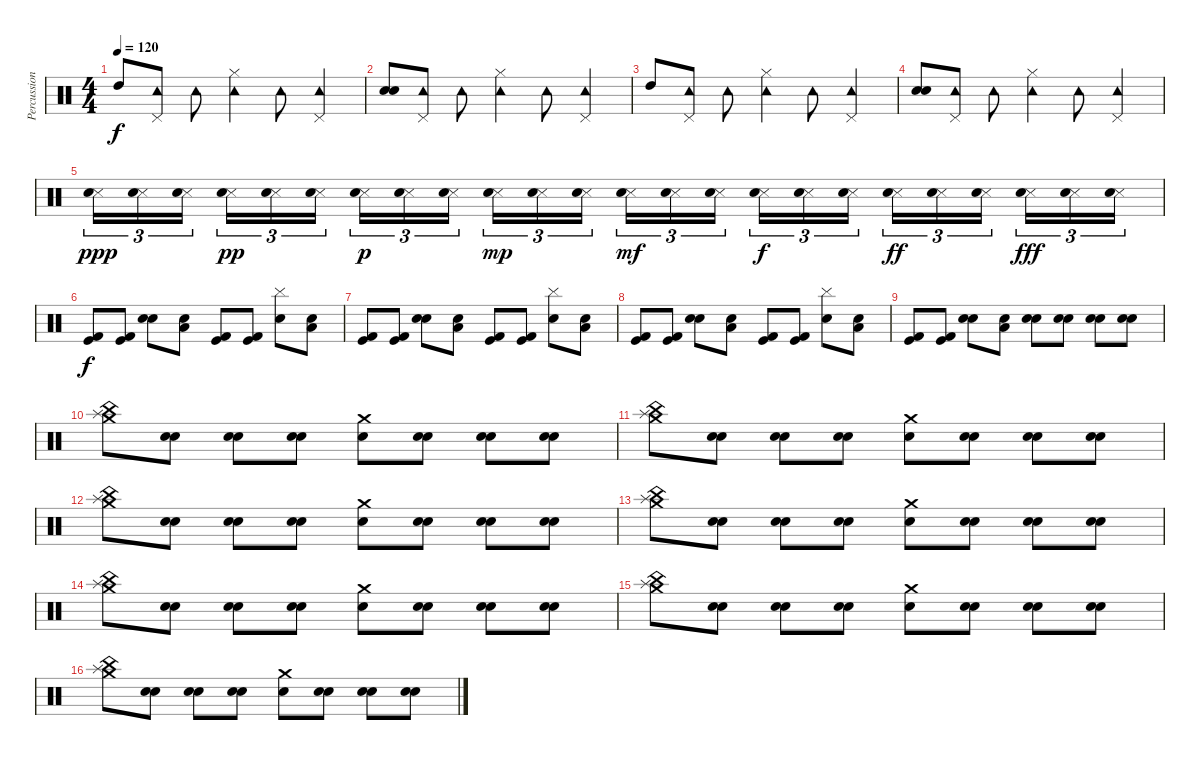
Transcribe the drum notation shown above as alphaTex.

\track ("Percussioni" "Percussion") {instrument percussion}
\staff {score}
\articulation defaults
\ts (4 4)
\tempo 120
\clef neutral
\ks c "High Tom (hit)".8{dy f}
("Tambourine (hit)" "Pedal Hi-Hat (hit)").8 "Tambourine (hit)".8 ("Tambourine (hit)" "Hi-Hat (closed)").4 "Tambourine (hit)".8 ("Tambourine (hit)" "Pedal Hi-Hat (hit)").4 |
("Electric Snare (hit)" "Snare (hit) 2").8 ("Tambourine (hit)" "Pedal Hi-Hat (hit)").8 "Tambourine (hit)".8 ("Tambourine (hit)" "Hi-Hat (closed)").4 "Tambourine (hit)".8 ("Tambourine (hit)" "Pedal Hi-Hat (hit)").4 |
"High Tom (hit)".8 ("Tambourine (hit)" "Pedal Hi-Hat (hit)").8 "Tambourine (hit)".8 ("Tambourine (hit)" "Hi-Hat (closed)").4 "Tambourine (hit)".8 ("Tambourine (hit)" "Pedal Hi-Hat (hit)").4 |
("Electric Snare (hit)" "Snare (hit) 2").8 ("Tambourine (hit)" "Pedal Hi-Hat (hit)").8 "Tambourine (hit)".8 ("Tambourine (hit)" "Hi-Hat (closed)").4 "Tambourine (hit)".8 ("Tambourine (hit)" "Pedal Hi-Hat (hit)").4 |
("Snare (side stick) 3" "Electric Snare (hit)").16{tu (3 2) dy ppp} ("Snare (side stick) 3" "Electric Snare (hit)").16{tu (3 2)} ("Snare (side stick) 3" "Electric Snare (hit)").16{tu (3 2) beam splitsecondary} ("Snare (side stick) 3" "Electric Snare (hit)").16{tu (3 2) dy pp} ("Snare (side stick) 3" "Electric Snare (hit)").16{tu (3 2)} ("Snare (side stick) 3" "Electric Snare (hit)").16{tu (3 2)} ("Snare (side stick) 3" "Electric Snare (hit)").16{tu (3 2) dy p} ("Snare (side stick) 3" "Electric Snare (hit)").16{tu (3 2)} ("Snare (side stick) 3" "Electric Snare (hit)").16{tu (3 2) beam splitsecondary} ("Snare (side stick) 3" "Electric Snare (hit)").16{tu (3 2) dy mp} ("Snare (side stick) 3" "Electric Snare (hit)").16{tu (3 2)} ("Snare (side stick) 3" "Electric Snare (hit)").16{tu (3 2)} ("Snare (side stick) 3" "Electric Snare (hit)").16{tu (3 2) dy mf} ("Snare (side stick) 3" "Electric Snare (hit)").16{tu (3 2)} ("Snare (side stick) 3" "Electric Snare (hit)").16{tu (3 2) beam splitsecondary} ("Snare (side stick) 3" "Electric Snare (hit)").16{tu (3 2) dy f} ("Snare (side stick) 3" "Electric Snare (hit)").16{tu (3 2)} ("Snare (side stick) 3" "Electric Snare (hit)").16{tu (3 2)} ("Snare (side stick) 3" "Electric Snare (hit)").16{tu (3 2) dy ff} ("Snare (side stick) 3" "Electric Snare (hit)").16{tu (3 2)} ("Snare (side stick) 3" "Electric Snare (hit)").16{tu (3 2) beam splitsecondary} ("Snare (side stick) 3" "Electric Snare (hit)").16{tu (3 2) dy fff} ("Snare (side stick) 3" "Electric Snare (hit)").16{tu (3 2)} ("Snare (side stick) 3" "Electric Snare (hit)").16{tu (3 2)} |
("Kick (hit) 2" "Kick (hit)").8{dy f} ("Kick (hit) 2" "Kick (hit)").8 ("Snare (hit) 2" "Electric Snare (hit)").8 ("Low Floor Tom (hit)" "Electric Snare (hit)").8 ("Kick (hit) 2" "Kick (hit)").8 ("Kick (hit) 2" "Kick (hit)").8 ("Snare (hit) 2" "Cymbal (hit)").8 ("Low Floor Tom (hit)" "Electric Snare (hit)").8 |
("Kick (hit) 2" "Kick (hit)").8 ("Kick (hit) 2" "Kick (hit)").8 ("Snare (hit) 2" "Electric Snare (hit)").8 ("Low Floor Tom (hit)" "Electric Snare (hit)").8 ("Kick (hit) 2" "Kick (hit)").8 ("Kick (hit) 2" "Kick (hit)").8 ("Snare (hit) 2" "Cymbal (hit)").8 ("Low Floor Tom (hit)" "Electric Snare (hit)").8 |
("Kick (hit) 2" "Kick (hit)").8 ("Kick (hit) 2" "Kick (hit)").8 ("Snare (hit) 2" "Electric Snare (hit)").8 ("Low Floor Tom (hit)" "Electric Snare (hit)").8 ("Kick (hit) 2" "Kick (hit)").8 ("Kick (hit) 2" "Kick (hit)").8 ("Snare (hit) 2" "Cymbal (hit)").8 ("Low Floor Tom (hit)" "Electric Snare (hit)").8 |
("Kick (hit) 2" "Kick (hit)").8 ("Kick (hit) 2" "Kick (hit)").8 ("Snare (hit) 2" "Electric Snare (hit)").8 ("Low Floor Tom (hit)" "Electric Snare (hit)").8 ("Electric Snare (hit)" "Snare (hit) 2").8 ("Electric Snare (hit)" "Snare (hit) 2").8 ("Electric Snare (hit)" "Snare (hit) 2").8 ("Electric Snare (hit)" "Snare (hit) 2").8 |
("Crash medium (hit)" "China (hit)" "Splash (hit)").8 ("Electric Snare (hit)" "Snare (hit) 2").8 ("Electric Snare (hit)" "Snare (hit) 2").8 ("Electric Snare (hit)" "Snare (hit) 2").8 ("Crash medium (hit)" "Snare (hit) 2").8 ("Electric Snare (hit)" "Snare (hit) 2").8 ("Electric Snare (hit)" "Snare (hit) 2").8 ("Electric Snare (hit)" "Snare (hit) 2").8 |
("Crash medium (hit)" "China (hit)" "Splash (hit)").8 ("Electric Snare (hit)" "Snare (hit) 2").8 ("Electric Snare (hit)" "Snare (hit) 2").8 ("Electric Snare (hit)" "Snare (hit) 2").8 ("Crash medium (hit)" "Snare (hit) 2").8 ("Electric Snare (hit)" "Snare (hit) 2").8 ("Electric Snare (hit)" "Snare (hit) 2").8 ("Electric Snare (hit)" "Snare (hit) 2").8 |
("Crash medium (hit)" "China (hit)" "Splash (hit)").8 ("Electric Snare (hit)" "Snare (hit) 2").8 ("Electric Snare (hit)" "Snare (hit) 2").8 ("Electric Snare (hit)" "Snare (hit) 2").8 ("Crash medium (hit)" "Snare (hit) 2").8 ("Electric Snare (hit)" "Snare (hit) 2").8 ("Electric Snare (hit)" "Snare (hit) 2").8 ("Electric Snare (hit)" "Snare (hit) 2").8 |
("Crash medium (hit)" "China (hit)" "Splash (hit)").8 ("Electric Snare (hit)" "Snare (hit) 2").8 ("Electric Snare (hit)" "Snare (hit) 2").8 ("Electric Snare (hit)" "Snare (hit) 2").8 ("Crash medium (hit)" "Snare (hit) 2").8 ("Electric Snare (hit)" "Snare (hit) 2").8 ("Electric Snare (hit)" "Snare (hit) 2").8 ("Electric Snare (hit)" "Snare (hit) 2").8 |
("Crash medium (hit)" "China (hit)" "Splash (hit)").8 ("Electric Snare (hit)" "Snare (hit) 2").8 ("Electric Snare (hit)" "Snare (hit) 2").8 ("Electric Snare (hit)" "Snare (hit) 2").8 ("Crash medium (hit)" "Snare (hit) 2").8 ("Electric Snare (hit)" "Snare (hit) 2").8 ("Electric Snare (hit)" "Snare (hit) 2").8 ("Electric Snare (hit)" "Snare (hit) 2").8 |
("Crash medium (hit)" "China (hit)" "Splash (hit)").8 ("Electric Snare (hit)" "Snare (hit) 2").8 ("Electric Snare (hit)" "Snare (hit) 2").8 ("Electric Snare (hit)" "Snare (hit) 2").8 ("Crash medium (hit)" "Snare (hit) 2").8 ("Electric Snare (hit)" "Snare (hit) 2").8 ("Electric Snare (hit)" "Snare (hit) 2").8 ("Electric Snare (hit)" "Snare (hit) 2").8 |
("Crash medium (hit)" "China (hit)" "Splash (hit)").8 ("Electric Snare (hit)" "Snare (hit) 2").8 ("Electric Snare (hit)" "Snare (hit) 2").8 ("Electric Snare (hit)" "Snare (hit) 2").8 ("Crash medium (hit)" "Snare (hit) 2").8 ("Electric Snare (hit)" "Snare (hit) 2").8 ("Electric Snare (hit)" "Snare (hit) 2").8 ("Electric Snare (hit)" "Snare (hit) 2").8
